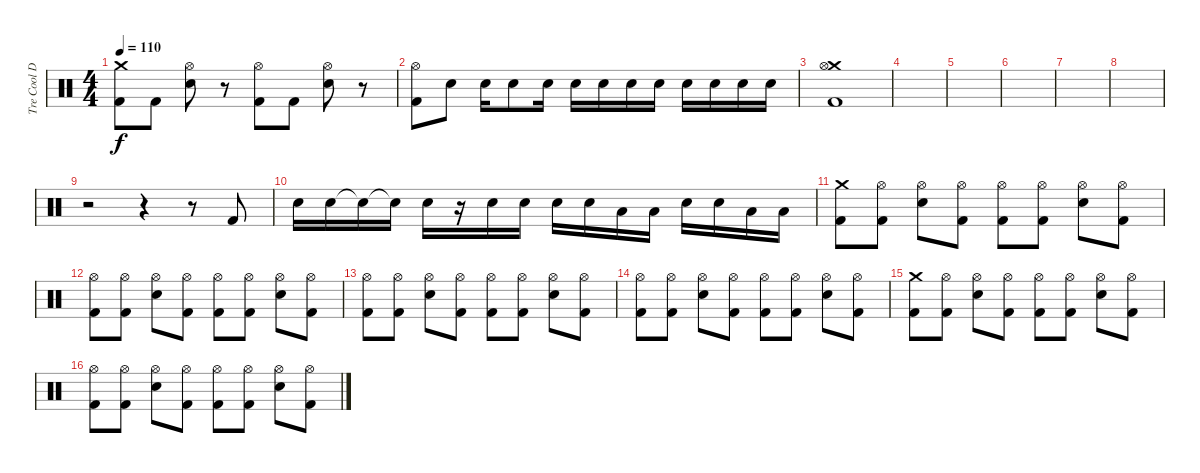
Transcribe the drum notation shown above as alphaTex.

\track ("Tre Cool Drums" "Tre Cool D") {instrument percussion}
\staff {score}
\articulation defaults
\ts (4 4)
\tempo 110
\clef neutral
\ks c
("Crash medium (hit)" "Kick (hit) 2").8{dy f} "Kick (hit) 2".8 ("Hi-Hat (open)" "Electric Snare (hit)").8 r.8 ("Hi-Hat (open)" "Kick (hit) 2").8 "Kick (hit) 2".8 ("Hi-Hat (open)" "Electric Snare (hit)").8 r.8 |
("Hi-Hat (open)" "Kick (hit) 2").8 "Electric Snare (hit)".8 "Electric Snare (hit)".16 "Electric Snare (hit)".8 "Electric Snare (hit)".16 "Electric Snare (hit)".16 "Electric Snare (hit)".16 "Electric Snare (hit)".16 "Electric Snare (hit)".16 "Electric Snare (hit)".16 "Electric Snare (hit)".16 "Electric Snare (hit)".16 "Electric Snare (hit)".16 |
("Crash medium (hit)" "Hi-Hat (open)" "Kick (hit) 2").1 |
|
|
|
|
|
r.2 r.4 r.8 "Kick (hit) 2".8 |
"Electric Snare (hit)".16 "Electric Snare (hit)".16 "Snare (hit)"{t}.16 "Snare (hit)"{t}.16 "Electric Snare (hit)".16 r.16 "Electric Snare (hit)".16 "Electric Snare (hit)".16 "Electric Snare (hit)".16 "Electric Snare (hit)".16 "Low Tom (hit)".16 "Low Tom (hit)".16 "Electric Snare (hit)".16 "Electric Snare (hit)".16 "Low Tom (hit)".16 "Low Tom (hit)".16 |
("Crash medium (hit)" "Kick (hit) 2").8 ("Hi-Hat (open)" "Kick (hit) 2").8 ("Hi-Hat (open)" "Electric Snare (hit)").8 ("Hi-Hat (open)" "Kick (hit) 2").8 ("Hi-Hat (open)" "Kick (hit) 2").8 ("Hi-Hat (open)" "Kick (hit) 2").8 ("Hi-Hat (open)" "Electric Snare (hit)").8 ("Hi-Hat (open)" "Kick (hit) 2").8 |
("Hi-Hat (open)" "Kick (hit) 2").8 ("Hi-Hat (open)" "Kick (hit) 2").8 ("Hi-Hat (open)" "Electric Snare (hit)").8 ("Hi-Hat (open)" "Kick (hit) 2").8 ("Hi-Hat (open)" "Kick (hit) 2").8 ("Hi-Hat (open)" "Kick (hit) 2").8 ("Hi-Hat (open)" "Electric Snare (hit)").8 ("Hi-Hat (open)" "Kick (hit) 2").8 |
("Hi-Hat (open)" "Kick (hit) 2").8 ("Hi-Hat (open)" "Kick (hit) 2").8 ("Hi-Hat (open)" "Electric Snare (hit)").8 ("Hi-Hat (open)" "Kick (hit) 2").8 ("Hi-Hat (open)" "Kick (hit) 2").8 ("Hi-Hat (open)" "Kick (hit) 2").8 ("Hi-Hat (open)" "Electric Snare (hit)").8 ("Hi-Hat (open)" "Kick (hit) 2").8 |
("Hi-Hat (open)" "Kick (hit) 2").8 ("Hi-Hat (open)" "Kick (hit) 2").8 ("Hi-Hat (open)" "Electric Snare (hit)").8 ("Hi-Hat (open)" "Kick (hit) 2").8 ("Hi-Hat (open)" "Kick (hit) 2").8 ("Hi-Hat (open)" "Kick (hit) 2").8 ("Hi-Hat (open)" "Electric Snare (hit)").8 ("Hi-Hat (open)" "Kick (hit) 2").8 |
("Crash medium (hit)" "Kick (hit) 2").8 ("Hi-Hat (open)" "Kick (hit) 2").8 ("Hi-Hat (open)" "Electric Snare (hit)").8 ("Hi-Hat (open)" "Kick (hit) 2").8 ("Hi-Hat (open)" "Kick (hit) 2").8 ("Hi-Hat (open)" "Kick (hit) 2").8 ("Hi-Hat (open)" "Electric Snare (hit)").8 ("Hi-Hat (open)" "Kick (hit) 2").8 |
("Hi-Hat (open)" "Kick (hit) 2").8 ("Hi-Hat (open)" "Kick (hit) 2").8 ("Hi-Hat (open)" "Electric Snare (hit)").8 ("Hi-Hat (open)" "Kick (hit) 2").8 ("Hi-Hat (open)" "Kick (hit) 2").8 ("Hi-Hat (open)" "Kick (hit) 2").8 ("Hi-Hat (open)" "Electric Snare (hit)").8 ("Hi-Hat (open)" "Kick (hit) 2").8
